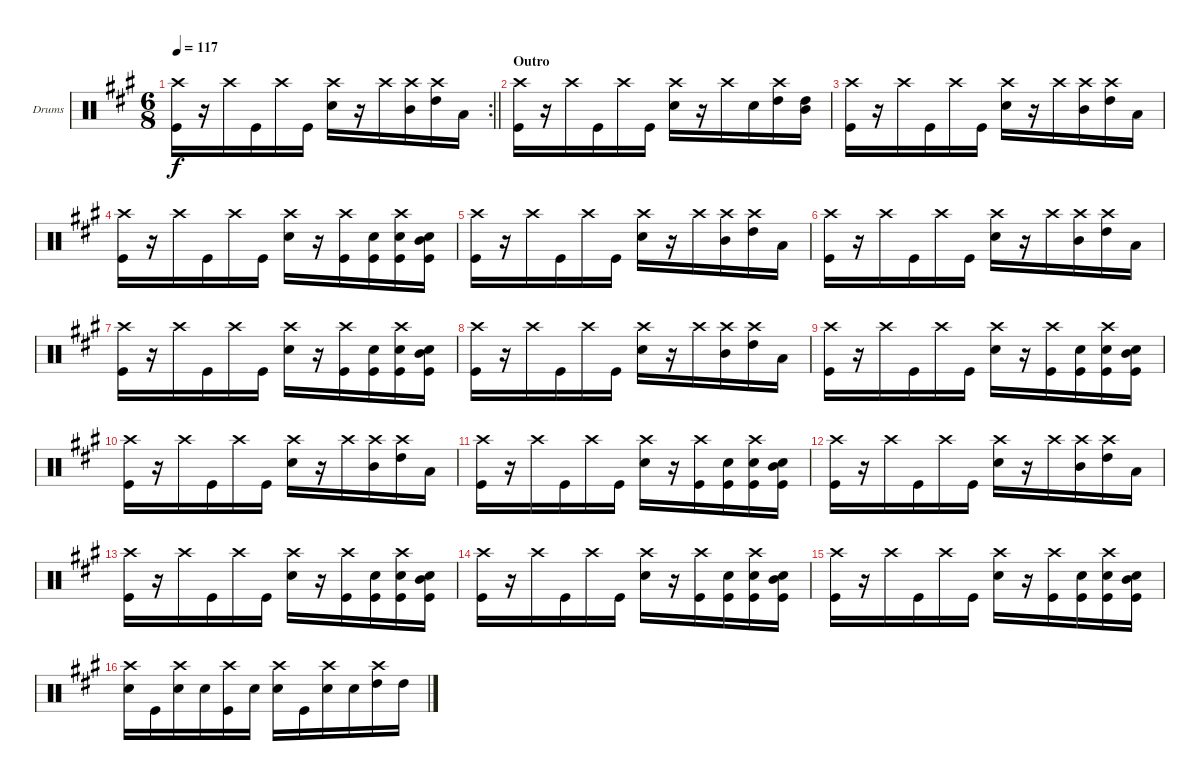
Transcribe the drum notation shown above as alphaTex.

\bracketExtendMode groupsimilarinstruments
\firstSystemTrackNameOrientation horizontal
\otherSystemsTrackNameOrientation horizontal
\track ("Drumkit" "Drums") {instrument percussion}
\staff {score}
\articulation defaults
\rc 2
\ts (6 8)
\tempo 117
\clef neutral
\barLineRight lightlight
\ks a
("Crash high (hit)" "Kick (hit)").16{dy f} r.16 "Crash high (hit)".16 "Kick (hit)".16 "Crash high (hit)".16 "Kick (hit)".16 ("Crash high (hit)" "Snare (hit) 2").16 r.16 "Crash high (hit)".16 ("Mid Tom (hit)" "Crash high (hit)").16 ("High Tom (hit)" "Crash high (hit)").16 "Low Tom (hit)".16 |
\section ("" "Outro")
("Crash high (hit)" "Kick (hit)").16 r.16 "Crash high (hit)".16 "Kick (hit)".16 "Crash high (hit)".16 "Kick (hit)".16 ("Crash high (hit)" "Snare (hit) 2").16 r.16 "Crash high (hit)".16 "Snare (hit) 2".16 ("High Tom (hit)" "Crash high (hit)").16 ("High Tom (hit)" "Mid Tom (hit)").16 |
("Crash high (hit)" "Kick (hit)").16 r.16 "Crash high (hit)".16 "Kick (hit)".16 "Crash high (hit)".16 "Kick (hit)".16 ("Crash high (hit)" "Snare (hit) 2").16 r.16 "Crash high (hit)".16 ("Mid Tom (hit)" "Crash high (hit)").16 ("High Tom (hit)" "Crash high (hit)").16 "Low Tom (hit)".16 |
("Crash high (hit)" "Kick (hit)").16 r.16 "Crash high (hit)".16 "Kick (hit)".16 "Crash high (hit)".16 "Kick (hit)".16 ("Crash high (hit)" "Snare (hit) 2").16 r.16 ("Crash high (hit)" "Kick (hit)").16 ("Snare (hit) 2" "Kick (hit)").16 ("Crash high (hit)" "Snare (hit) 2" "Kick (hit)").16 ("Mid Tom (hit)" "Snare (hit) 2" "Kick (hit)").16 |
("Crash high (hit)" "Kick (hit)").16 r.16 "Crash high (hit)".16 "Kick (hit)".16 "Crash high (hit)".16 "Kick (hit)".16 ("Crash high (hit)" "Snare (hit) 2").16 r.16 "Crash high (hit)".16 ("Mid Tom (hit)" "Crash high (hit)").16 ("High Tom (hit)" "Crash high (hit)").16 "Low Tom (hit)".16 |
("Crash high (hit)" "Kick (hit)").16 r.16 "Crash high (hit)".16 "Kick (hit)".16 "Crash high (hit)".16 "Kick (hit)".16 ("Crash high (hit)" "Snare (hit) 2").16 r.16 "Crash high (hit)".16 ("Mid Tom (hit)" "Crash high (hit)").16 ("High Tom (hit)" "Crash high (hit)").16 "Low Tom (hit)".16 |
("Crash high (hit)" "Kick (hit)").16 r.16 "Crash high (hit)".16 "Kick (hit)".16 "Crash high (hit)".16 "Kick (hit)".16 ("Crash high (hit)" "Snare (hit) 2").16 r.16 ("Crash high (hit)" "Kick (hit)").16 ("Snare (hit) 2" "Kick (hit)").16 ("Crash high (hit)" "Snare (hit) 2" "Kick (hit)").16 ("Mid Tom (hit)" "Snare (hit) 2" "Kick (hit)").16 |
("Crash high (hit)" "Kick (hit)").16 r.16 "Crash high (hit)".16 "Kick (hit)".16 "Crash high (hit)".16 "Kick (hit)".16 ("Crash high (hit)" "Snare (hit) 2").16 r.16 "Crash high (hit)".16 ("Mid Tom (hit)" "Crash high (hit)").16 ("High Tom (hit)" "Crash high (hit)").16 "Low Tom (hit)".16 |
("Crash high (hit)" "Kick (hit)").16 r.16 "Crash high (hit)".16 "Kick (hit)".16 "Crash high (hit)".16 "Kick (hit)".16 ("Crash high (hit)" "Snare (hit) 2").16 r.16 ("Crash high (hit)" "Kick (hit)").16 ("Snare (hit) 2" "Kick (hit)").16 ("Crash high (hit)" "Snare (hit) 2" "Kick (hit)").16 ("Mid Tom (hit)" "Snare (hit) 2" "Kick (hit)").16 |
("Crash high (hit)" "Kick (hit)").16 r.16 "Crash high (hit)".16 "Kick (hit)".16 "Crash high (hit)".16 "Kick (hit)".16 ("Crash high (hit)" "Snare (hit) 2").16 r.16 "Crash high (hit)".16 ("Mid Tom (hit)" "Crash high (hit)").16 ("High Tom (hit)" "Crash high (hit)").16 "Low Tom (hit)".16 |
("Crash high (hit)" "Kick (hit)").16 r.16 "Crash high (hit)".16 "Kick (hit)".16 "Crash high (hit)".16 "Kick (hit)".16 ("Crash high (hit)" "Snare (hit) 2").16 r.16 ("Crash high (hit)" "Kick (hit)").16 ("Snare (hit) 2" "Kick (hit)").16 ("Crash high (hit)" "Snare (hit) 2" "Kick (hit)").16 ("Mid Tom (hit)" "Snare (hit) 2" "Kick (hit)").16 |
("Crash high (hit)" "Kick (hit)").16 r.16 "Crash high (hit)".16 "Kick (hit)".16 "Crash high (hit)".16 "Kick (hit)".16 ("Crash high (hit)" "Snare (hit) 2").16 r.16 "Crash high (hit)".16 ("Mid Tom (hit)" "Crash high (hit)").16 ("High Tom (hit)" "Crash high (hit)").16 "Low Tom (hit)".16 |
("Crash high (hit)" "Kick (hit)").16 r.16 "Crash high (hit)".16 "Kick (hit)".16 "Crash high (hit)".16 "Kick (hit)".16 ("Crash high (hit)" "Snare (hit) 2").16 r.16 ("Crash high (hit)" "Kick (hit)").16 ("Snare (hit) 2" "Kick (hit)").16 ("Crash high (hit)" "Snare (hit) 2" "Kick (hit)").16 ("Mid Tom (hit)" "Snare (hit) 2" "Kick (hit)").16 |
("Crash high (hit)" "Kick (hit)").16 r.16 "Crash high (hit)".16 "Kick (hit)".16 "Crash high (hit)".16 "Kick (hit)".16 ("Crash high (hit)" "Snare (hit) 2").16 r.16 ("Crash high (hit)" "Kick (hit)").16 ("Snare (hit) 2" "Kick (hit)").16 ("Crash high (hit)" "Snare (hit) 2" "Kick (hit)").16 ("Mid Tom (hit)" "Snare (hit) 2" "Kick (hit)").16 |
("Crash high (hit)" "Kick (hit)").16 r.16 "Crash high (hit)".16 "Kick (hit)".16 "Crash high (hit)".16 "Kick (hit)".16 ("Crash high (hit)" "Snare (hit) 2").16 r.16 ("Crash high (hit)" "Kick (hit)").16 ("Snare (hit) 2" "Kick (hit)").16 ("Crash high (hit)" "Snare (hit) 2" "Kick (hit)").16 ("Mid Tom (hit)" "Snare (hit) 2" "Kick (hit)").16 |
("Crash high (hit)" "Snare (hit) 2").16 "Kick (hit)".16 ("Crash high (hit)" "Snare (hit) 2").16 "Snare (hit) 2".16 ("Crash high (hit)" "Kick (hit)").16 "Snare (hit) 2".16 ("Crash high (hit)" "Snare (hit) 2").16 "Kick (hit)".16 ("Crash high (hit)" "Snare (hit) 2").16 "Snare (hit) 2".16 ("Crash high (hit)" "High Tom (hit)").16 "High Tom (hit)".16
